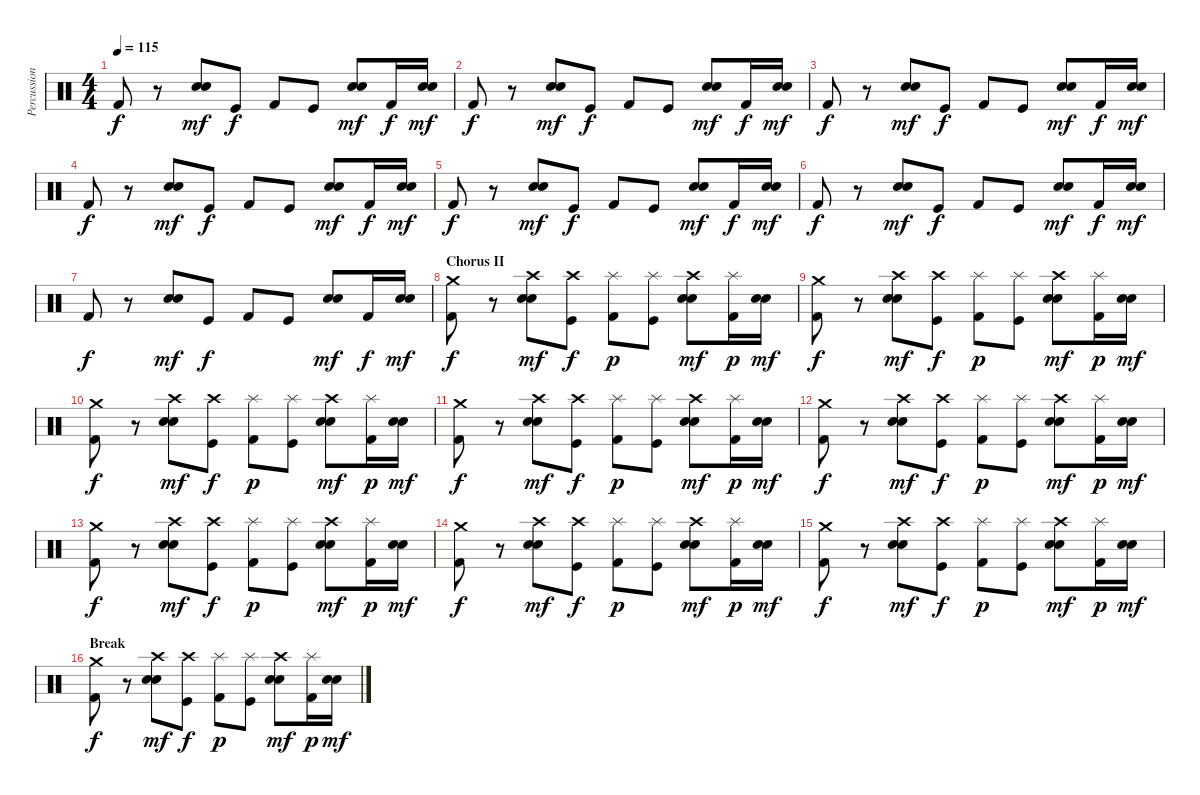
\track ("Percussion - Drums" "Percussion") {instrument percussion}
\staff {score}
\articulation defaults
\ts (4 4)
\tempo 115
\clef neutral
\ks c "Kick (hit) 2".8{dy f}
r.8 ("Electric Snare (hit)" "Snare (hit) 2").8{dy mf} "Kick (hit)".8{dy f} "Kick (hit) 2".8 "Kick (hit)".8 ("Electric Snare (hit)" "Snare (hit) 2").8{dy mf} "Kick (hit) 2".16{dy f} ("Electric Snare (hit)" "Snare (hit) 2").16{dy mf} |
"Kick (hit) 2".8{dy f} r.8 ("Electric Snare (hit)" "Snare (hit) 2").8{dy mf} "Kick (hit)".8{dy f} "Kick (hit) 2".8 "Kick (hit)".8 ("Electric Snare (hit)" "Snare (hit) 2").8{dy mf} "Kick (hit) 2".16{dy f} ("Electric Snare (hit)" "Snare (hit) 2").16{dy mf} |
"Kick (hit) 2".8{dy f} r.8 ("Electric Snare (hit)" "Snare (hit) 2").8{dy mf} "Kick (hit)".8{dy f} "Kick (hit) 2".8 "Kick (hit)".8 ("Electric Snare (hit)" "Snare (hit) 2").8{dy mf} "Kick (hit) 2".16{dy f} ("Electric Snare (hit)" "Snare (hit) 2").16{dy mf} |
"Kick (hit) 2".8{dy f} r.8 ("Electric Snare (hit)" "Snare (hit) 2").8{dy mf} "Kick (hit)".8{dy f} "Kick (hit) 2".8 "Kick (hit)".8 ("Electric Snare (hit)" "Snare (hit) 2").8{dy mf} "Kick (hit) 2".16{dy f} ("Electric Snare (hit)" "Snare (hit) 2").16{dy mf} |
"Kick (hit) 2".8{dy f} r.8 ("Electric Snare (hit)" "Snare (hit) 2").8{dy mf} "Kick (hit)".8{dy f} "Kick (hit) 2".8 "Kick (hit)".8 ("Electric Snare (hit)" "Snare (hit) 2").8{dy mf} "Kick (hit) 2".16{dy f} ("Electric Snare (hit)" "Snare (hit) 2").16{dy mf} |
"Kick (hit) 2".8{dy f} r.8 ("Electric Snare (hit)" "Snare (hit) 2").8{dy mf} "Kick (hit)".8{dy f} "Kick (hit) 2".8 "Kick (hit)".8 ("Electric Snare (hit)" "Snare (hit) 2").8{dy mf} "Kick (hit) 2".16{dy f} ("Electric Snare (hit)" "Snare (hit) 2").16{dy mf} |
"Kick (hit) 2".8{dy f} r.8 ("Electric Snare (hit)" "Snare (hit) 2").8{dy mf} "Kick (hit)".8{dy f} "Kick (hit) 2".8 "Kick (hit)".8 ("Electric Snare (hit)" "Snare (hit) 2").8{dy mf} "Kick (hit) 2".16{dy f} ("Electric Snare (hit)" "Snare (hit) 2").16{dy mf} |
\section ("" "Chorus II")
("Crash medium (hit)" "Kick (hit) 2").8{dy f} r.8 ("Crash high (hit)" "Electric Snare (hit)" "Snare (hit) 2").8{dy mf} ("Crash high (hit)" "Kick (hit)").8{dy f} ("Splash (hit)" "Kick (hit) 2").8{dy p} ("Splash (hit)" "Kick (hit)").8 ("Crash high (hit)" "Electric Snare (hit)" "Snare (hit) 2").8{dy mf} ("Splash (hit)" "Kick (hit) 2").16{dy p} ("Electric Snare (hit)" "Snare (hit) 2").16{dy mf} |
("Crash medium (hit)" "Kick (hit) 2").8{dy f} r.8 ("Crash high (hit)" "Electric Snare (hit)" "Snare (hit) 2").8{dy mf} ("Crash high (hit)" "Kick (hit)").8{dy f} ("Splash (hit)" "Kick (hit) 2").8{dy p} ("Splash (hit)" "Kick (hit)").8 ("Crash high (hit)" "Electric Snare (hit)" "Snare (hit) 2").8{dy mf} ("Splash (hit)" "Kick (hit) 2").16{dy p} ("Electric Snare (hit)" "Snare (hit) 2").16{dy mf} |
("Crash medium (hit)" "Kick (hit) 2").8{dy f} r.8 ("Crash high (hit)" "Electric Snare (hit)" "Snare (hit) 2").8{dy mf} ("Crash high (hit)" "Kick (hit)").8{dy f} ("Splash (hit)" "Kick (hit) 2").8{dy p} ("Splash (hit)" "Kick (hit)").8 ("Crash high (hit)" "Electric Snare (hit)" "Snare (hit) 2").8{dy mf} ("Splash (hit)" "Kick (hit) 2").16{dy p} ("Electric Snare (hit)" "Snare (hit) 2").16{dy mf} |
("Crash medium (hit)" "Kick (hit) 2").8{dy f} r.8 ("Crash high (hit)" "Electric Snare (hit)" "Snare (hit) 2").8{dy mf} ("Crash high (hit)" "Kick (hit)").8{dy f} ("Splash (hit)" "Kick (hit) 2").8{dy p} ("Splash (hit)" "Kick (hit)").8 ("Crash high (hit)" "Electric Snare (hit)" "Snare (hit) 2").8{dy mf} ("Splash (hit)" "Kick (hit) 2").16{dy p} ("Electric Snare (hit)" "Snare (hit) 2").16{dy mf} |
("Crash medium (hit)" "Kick (hit) 2").8{dy f} r.8 ("Crash high (hit)" "Electric Snare (hit)" "Snare (hit) 2").8{dy mf} ("Crash high (hit)" "Kick (hit)").8{dy f} ("Splash (hit)" "Kick (hit) 2").8{dy p} ("Splash (hit)" "Kick (hit)").8 ("Crash high (hit)" "Electric Snare (hit)" "Snare (hit) 2").8{dy mf} ("Splash (hit)" "Kick (hit) 2").16{dy p} ("Electric Snare (hit)" "Snare (hit) 2").16{dy mf} |
("Crash medium (hit)" "Kick (hit) 2").8{dy f} r.8 ("Crash high (hit)" "Electric Snare (hit)" "Snare (hit) 2").8{dy mf} ("Crash high (hit)" "Kick (hit)").8{dy f} ("Splash (hit)" "Kick (hit) 2").8{dy p} ("Splash (hit)" "Kick (hit)").8 ("Crash high (hit)" "Electric Snare (hit)" "Snare (hit) 2").8{dy mf} ("Splash (hit)" "Kick (hit) 2").16{dy p} ("Electric Snare (hit)" "Snare (hit) 2").16{dy mf} |
("Crash medium (hit)" "Kick (hit) 2").8{dy f} r.8 ("Crash high (hit)" "Electric Snare (hit)" "Snare (hit) 2").8{dy mf} ("Crash high (hit)" "Kick (hit)").8{dy f} ("Splash (hit)" "Kick (hit) 2").8{dy p} ("Splash (hit)" "Kick (hit)").8 ("Crash high (hit)" "Electric Snare (hit)" "Snare (hit) 2").8{dy mf} ("Splash (hit)" "Kick (hit) 2").16{dy p} ("Electric Snare (hit)" "Snare (hit) 2").16{dy mf} |
("Crash medium (hit)" "Kick (hit) 2").8{dy f} r.8 ("Crash high (hit)" "Electric Snare (hit)" "Snare (hit) 2").8{dy mf} ("Crash high (hit)" "Kick (hit)").8{dy f} ("Splash (hit)" "Kick (hit) 2").8{dy p} ("Splash (hit)" "Kick (hit)").8 ("Crash high (hit)" "Electric Snare (hit)" "Snare (hit) 2").8{dy mf} ("Splash (hit)" "Kick (hit) 2").16{dy p} ("Electric Snare (hit)" "Snare (hit) 2").16{dy mf} |
\section ("" "Break")
("Crash medium (hit)" "Kick (hit) 2").8{dy f} r.8 ("Crash high (hit)" "Electric Snare (hit)" "Snare (hit) 2").8{dy mf} ("Crash high (hit)" "Kick (hit)").8{dy f} ("Splash (hit)" "Kick (hit) 2").8{dy p} ("Splash (hit)" "Kick (hit)").8 ("Crash high (hit)" "Electric Snare (hit)" "Snare (hit) 2").8{dy mf} ("Splash (hit)" "Kick (hit) 2").16{dy p} ("Electric Snare (hit)" "Snare (hit) 2").16{dy mf}
